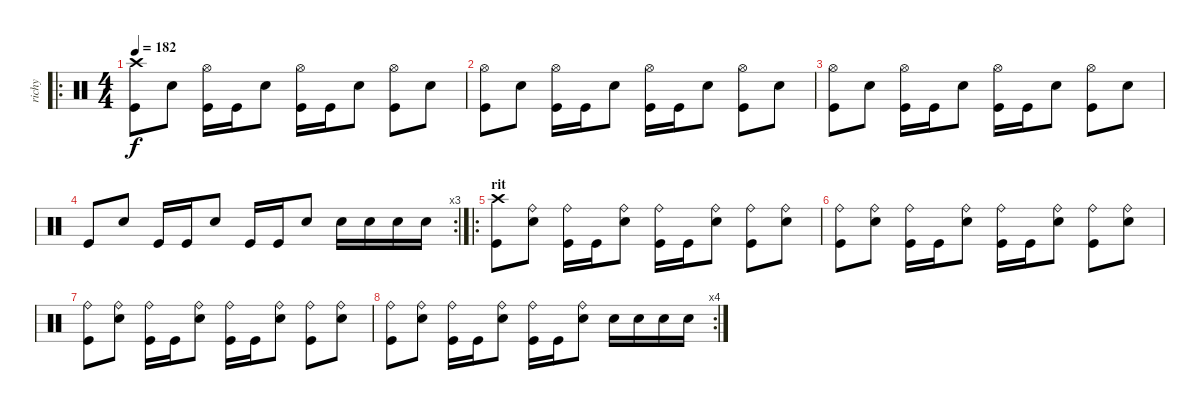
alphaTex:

\track ("richy" "richy") {instrument percussion}
\staff {score}
\articulation defaults
\ro
\ts (4 4)
\tempo 182
\clef neutral
\ks c
("Kick (hit)" "Crash high (hit)").8{dy f} "Snare (hit) 2".8 ("Kick (hit)" "Hi-Hat (open)").16 "Kick (hit)".16 "Snare (hit) 2".8 ("Kick (hit)" "Hi-Hat (open)").16 "Kick (hit)".16 "Snare (hit) 2".8 ("Kick (hit)" "Hi-Hat (open)").8 "Snare (hit) 2".8 |
("Kick (hit)" "Hi-Hat (open)").8 "Snare (hit) 2".8 ("Kick (hit)" "Hi-Hat (open)").16 "Kick (hit)".16 "Snare (hit) 2".8 ("Kick (hit)" "Hi-Hat (open)").16 "Kick (hit)".16 "Snare (hit) 2".8 ("Kick (hit)" "Hi-Hat (open)").8 "Snare (hit) 2".8 |
("Kick (hit)" "Hi-Hat (open)").8 "Snare (hit) 2".8 ("Kick (hit)" "Hi-Hat (open)").16 "Kick (hit)".16 "Snare (hit) 2".8 ("Kick (hit)" "Hi-Hat (open)").16 "Kick (hit)".16 "Snare (hit) 2".8 ("Kick (hit)" "Hi-Hat (open)").8 "Snare (hit) 2".8 |
\rc 3 "Kick (hit)".8 "Snare (hit) 2".8 "Kick (hit)".16 "Kick (hit)".16 "Snare (hit) 2".8 "Kick (hit)".16 "Kick (hit)".16 "Snare (hit) 2".8 "Snare (hit) 2".16 "Snare (hit) 2".16 "Snare (hit) 2".16 "Snare (hit) 2".16
|
\ro
\section ("" "rit ")
("Kick (hit)" "Crash high (hit)").8 ("Snare (hit) 2" "Ride (bell)").8 ("Kick (hit)" "Ride (bell)").16 "Kick (hit)".16 ("Snare (hit) 2" "Ride (bell)").8 ("Kick (hit)" "Ride (bell)").16 "Kick (hit)".16 ("Snare (hit) 2" "Ride (bell)").8 ("Kick (hit)" "Ride (bell)").8 ("Snare (hit) 2" "Ride (bell)").8 |
("Kick (hit)" "Ride (bell)").8 ("Snare (hit) 2" "Ride (bell)").8 ("Kick (hit)" "Ride (bell)").16 "Kick (hit)".16 ("Snare (hit) 2" "Ride (bell)").8 ("Kick (hit)" "Ride (bell)").16 "Kick (hit)".16 ("Snare (hit) 2" "Ride (bell)").8 ("Kick (hit)" "Ride (bell)").8 ("Snare (hit) 2" "Ride (bell)").8 |
("Kick (hit)" "Ride (bell)").8 ("Snare (hit) 2" "Ride (bell)").8 ("Kick (hit)" "Ride (bell)").16 "Kick (hit)".16 ("Snare (hit) 2" "Ride (bell)").8 ("Kick (hit)" "Ride (bell)").16 "Kick (hit)".16 ("Snare (hit) 2" "Ride (bell)").8 ("Kick (hit)" "Ride (bell)").8 ("Snare (hit) 2" "Ride (bell)").8 |
\rc 4
("Kick (hit)" "Ride (bell)").8 ("Snare (hit) 2" "Ride (bell)").8 ("Kick (hit)" "Ride (bell)").16 "Kick (hit)".16 ("Snare (hit) 2" "Ride (bell)").8 ("Kick (hit)" "Ride (bell)").16 "Kick (hit)".16 ("Snare (hit) 2" "Ride (bell)").8 "Snare (hit) 2".16 "Snare (hit) 2".16 "Snare (hit) 2".16 "Snare (hit) 2".16
